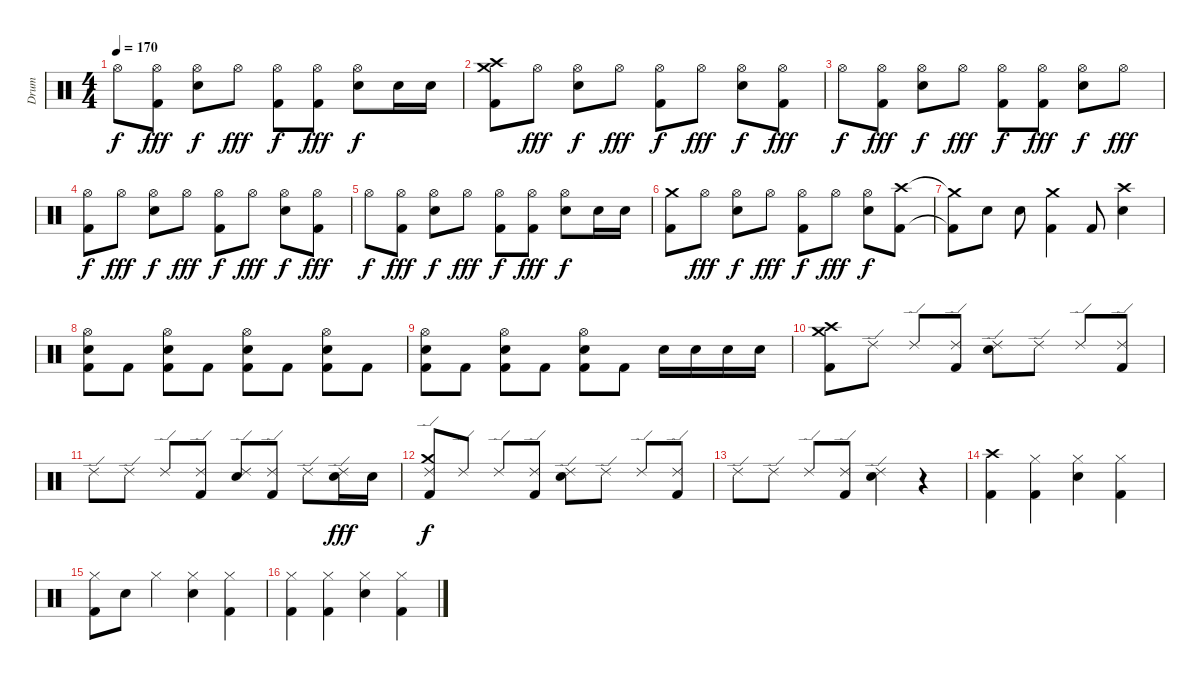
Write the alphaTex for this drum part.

\track ("Drum" "Drum") {instrument percussion}
\staff {score}
\articulation defaults
\ts (4 4)
\tempo 170
\clef neutral
\ks c "Hi-Hat (open)".8{dy f}
("Kick (hit) 2" "Hi-Hat (open)").8{dy fff} ("Electric Snare (hit)" "Hi-Hat (open)").8{dy f} "Hi-Hat (open)".8{dy fff} ("Kick (hit) 2" "Hi-Hat (open)").8{dy f} ("Kick (hit) 2" "Hi-Hat (open)").8{dy fff} ("Electric Snare (hit)" "Hi-Hat (open)").8{dy f} "Electric Snare (hit)".16 "Electric Snare (hit)".16 |
("Kick (hit) 2" "Crash medium (hit)" "Crash high (hit)").8 "Hi-Hat (open)".8{dy fff} ("Electric Snare (hit)" "Hi-Hat (open)").8{dy f} "Hi-Hat (open)".8{dy fff} ("Kick (hit) 2" "Hi-Hat (open)").8{dy f} "Hi-Hat (open)".8{dy fff} ("Electric Snare (hit)" "Hi-Hat (open)").8{dy f} ("Kick (hit) 2" "Hi-Hat (open)").8{dy fff} |
"Hi-Hat (open)".8{dy f} ("Kick (hit) 2" "Hi-Hat (open)").8{dy fff} ("Electric Snare (hit)" "Hi-Hat (open)").8{dy f} "Hi-Hat (open)".8{dy fff} ("Kick (hit) 2" "Hi-Hat (open)").8{dy f} ("Kick (hit) 2" "Hi-Hat (open)").8{dy fff} ("Electric Snare (hit)" "Hi-Hat (open)").8{dy f} "Hi-Hat (open)".8{dy fff} |
("Kick (hit) 2" "Hi-Hat (open)").8{dy f} "Hi-Hat (open)".8{dy fff} ("Electric Snare (hit)" "Hi-Hat (open)").8{dy f} "Hi-Hat (open)".8{dy fff} ("Kick (hit) 2" "Hi-Hat (open)").8{dy f} "Hi-Hat (open)".8{dy fff} ("Electric Snare (hit)" "Hi-Hat (open)").8{dy f} ("Kick (hit) 2" "Hi-Hat (open)").8{dy fff} |
"Hi-Hat (open)".8{dy f} ("Kick (hit) 2" "Hi-Hat (open)").8{dy fff} ("Electric Snare (hit)" "Hi-Hat (open)").8{dy f} "Hi-Hat (open)".8{dy fff} ("Kick (hit) 2" "Hi-Hat (open)").8{dy f} ("Kick (hit) 2" "Hi-Hat (open)").8{dy fff} ("Electric Snare (hit)" "Hi-Hat (open)").8{dy f} "Electric Snare (hit)".16 "Electric Snare (hit)".16 |
("Kick (hit) 2" "Crash medium (hit)").8 "Hi-Hat (open)".8{dy fff} ("Electric Snare (hit)" "Hi-Hat (open)").8{dy f} "Hi-Hat (open)".8{dy fff} ("Kick (hit) 2" "Hi-Hat (open)").8{dy f} "Hi-Hat (open)".8{dy fff} ("Electric Snare (hit)" "Hi-Hat (open)").8{dy f} ("Kick (hit) 2" "Crash high (hit)").8 |
("Kick (hit) 2"{t} "Crash medium (hit)"{t}).8 "Electric Snare (hit)".8 "Electric Snare (hit)".8 ("Kick (hit) 2" "Crash medium (hit)").4 "Kick (hit) 2".8 ("Electric Snare (hit)" "Crash high (hit)").4 |
("Kick (hit) 2" "Electric Snare (hit)" "Hi-Hat (open)").8 "Kick (hit) 2".8 ("Kick (hit) 2" "Electric Snare (hit)" "Hi-Hat (open)").8 "Kick (hit) 2".8 ("Kick (hit) 2" "Electric Snare (hit)" "Hi-Hat (open)").8 "Kick (hit) 2".8 ("Kick (hit) 2" "Electric Snare (hit)" "Hi-Hat (open)").8 "Kick (hit) 2".8 |
("Kick (hit) 2" "Electric Snare (hit)" "Hi-Hat (open)").8 "Kick (hit) 2".8 ("Kick (hit) 2" "Electric Snare (hit)" "Hi-Hat (open)").8 "Kick (hit) 2".8 ("Kick (hit) 2" "Electric Snare (hit)" "Hi-Hat (open)").8 "Kick (hit) 2".8 "Electric Snare (hit)".16 "Electric Snare (hit)".16 "Electric Snare (hit)".16 "Electric Snare (hit)".16 |
("Kick (hit) 2" "Crash medium (hit)" "Crash high (hit)").8 "Ride (edge) 2".8 "Ride (edge) 2".8 ("Kick (hit) 2" "Ride (edge) 2").8 ("Electric Snare (hit)" "Ride (edge) 2").8 "Ride (edge) 2".8 "Ride (edge) 2".8 ("Kick (hit) 2" "Ride (edge) 2").8 |
"Ride (edge) 2".8 "Ride (edge) 2".8 "Ride (edge) 2".8 ("Kick (hit) 2" "Ride (edge) 2").8 ("Electric Snare (hit)" "Ride (edge) 2").8 ("Kick (hit) 2" "Ride (edge) 2").8 "Ride (edge) 2".8 ("Ride (edge) 2" "Electric Snare (hit)").16{dy fff} "Electric Snare (hit)".16 |
("Kick (hit) 2" "Ride (edge) 2" "Crash medium (hit)").8{dy f} "Ride (edge) 2".8 "Ride (edge) 2".8 ("Kick (hit) 2" "Ride (edge) 2").8 ("Electric Snare (hit)" "Ride (edge) 2").8 "Ride (edge) 2".8 "Ride (edge) 2".8 ("Kick (hit) 2" "Ride (edge) 2").8 |
"Ride (edge) 2".8 "Ride (edge) 2".8 "Ride (edge) 2".8 ("Kick (hit) 2" "Ride (edge) 2").8 ("Electric Snare (hit)" "Ride (edge) 2").4 r.4 |
("Crash high (hit)" "Kick (hit) 2").4 ("Hi-Hat (closed)" "Kick (hit) 2").4 ("Hi-Hat (closed)" "Electric Snare (hit)").4 ("Hi-Hat (closed)" "Kick (hit) 2").4 |
("Hi-Hat (closed)" "Kick (hit) 2").8 "Electric Snare (hit)".8 "Hi-Hat (closed)".4 ("Hi-Hat (closed)" "Electric Snare (hit)").4 ("Hi-Hat (closed)" "Kick (hit) 2").4 |
("Hi-Hat (closed)" "Kick (hit) 2").4 ("Hi-Hat (closed)" "Kick (hit) 2").4 ("Hi-Hat (closed)" "Electric Snare (hit)").4 ("Hi-Hat (closed)" "Kick (hit) 2").4
